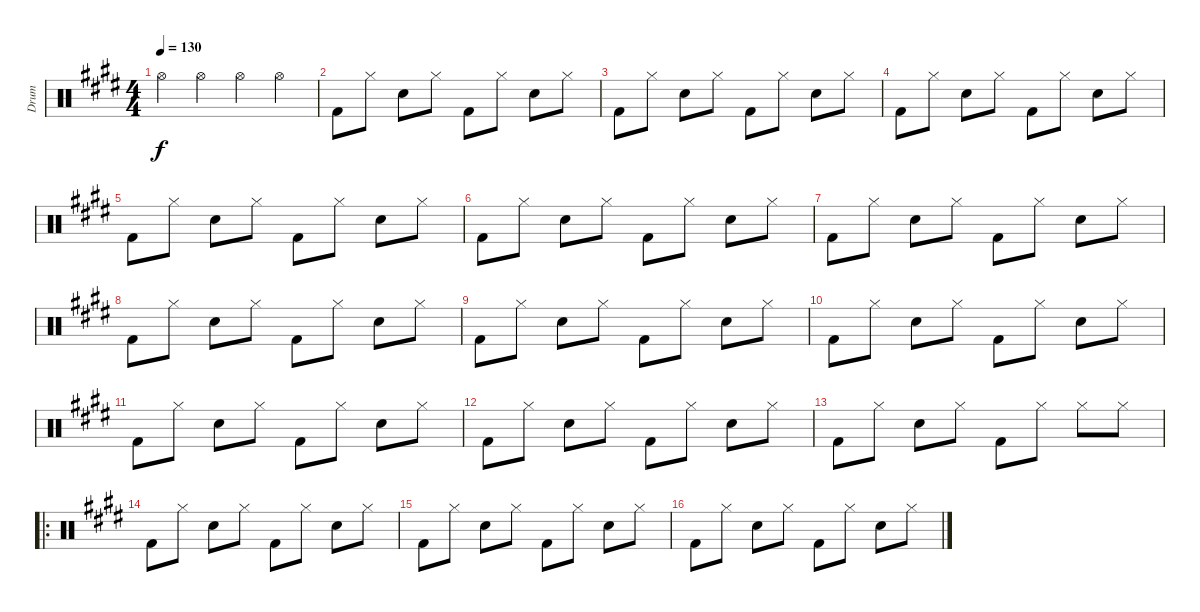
\track ("Drum" "Drum") {instrument percussion}
\staff {score}
\articulation defaults
\ts (4 4)
\tempo 130
\clef neutral
\ks c#minor "Hi-Hat (open)".4{dy f} "Hi-Hat (open)".4 "Hi-Hat (open)".4 "Hi-Hat (open)".4
|
"Kick (hit) 2".8 "Hi-Hat (closed)".8 "Electric Snare (hit)".8 "Hi-Hat (closed)".8 "Kick (hit) 2".8 "Hi-Hat (closed)".8 "Electric Snare (hit)".8 "Hi-Hat (closed)".8 |
"Kick (hit) 2".8 "Hi-Hat (closed)".8 "Electric Snare (hit)".8 "Hi-Hat (closed)".8 "Kick (hit) 2".8 "Hi-Hat (closed)".8 "Electric Snare (hit)".8 "Hi-Hat (closed)".8 |
"Kick (hit) 2".8 "Hi-Hat (closed)".8 "Electric Snare (hit)".8 "Hi-Hat (closed)".8 "Kick (hit) 2".8 "Hi-Hat (closed)".8 "Electric Snare (hit)".8 "Hi-Hat (closed)".8 |
"Kick (hit) 2".8 "Hi-Hat (closed)".8 "Electric Snare (hit)".8 "Hi-Hat (closed)".8 "Kick (hit) 2".8 "Hi-Hat (closed)".8 "Electric Snare (hit)".8 "Hi-Hat (closed)".8 |
"Kick (hit) 2".8 "Hi-Hat (closed)".8 "Electric Snare (hit)".8 "Hi-Hat (closed)".8 "Kick (hit) 2".8 "Hi-Hat (closed)".8 "Electric Snare (hit)".8 "Hi-Hat (closed)".8 |
"Kick (hit) 2".8 "Hi-Hat (closed)".8 "Electric Snare (hit)".8 "Hi-Hat (closed)".8 "Kick (hit) 2".8 "Hi-Hat (closed)".8 "Electric Snare (hit)".8 "Hi-Hat (closed)".8 |
"Kick (hit) 2".8 "Hi-Hat (closed)".8 "Electric Snare (hit)".8 "Hi-Hat (closed)".8 "Kick (hit) 2".8 "Hi-Hat (closed)".8 "Electric Snare (hit)".8 "Hi-Hat (closed)".8 |
"Kick (hit) 2".8 "Hi-Hat (closed)".8 "Electric Snare (hit)".8 "Hi-Hat (closed)".8 "Kick (hit) 2".8 "Hi-Hat (closed)".8 "Electric Snare (hit)".8 "Hi-Hat (closed)".8 |
"Kick (hit) 2".8 "Hi-Hat (closed)".8 "Electric Snare (hit)".8 "Hi-Hat (closed)".8 "Kick (hit) 2".8 "Hi-Hat (closed)".8 "Electric Snare (hit)".8 "Hi-Hat (closed)".8 |
"Kick (hit) 2".8 "Hi-Hat (closed)".8 "Electric Snare (hit)".8 "Hi-Hat (closed)".8 "Kick (hit) 2".8 "Hi-Hat (closed)".8 "Electric Snare (hit)".8 "Hi-Hat (closed)".8 |
"Kick (hit) 2".8 "Hi-Hat (closed)".8 "Electric Snare (hit)".8 "Hi-Hat (closed)".8 "Kick (hit) 2".8 "Hi-Hat (closed)".8 "Electric Snare (hit)".8 "Hi-Hat (closed)".8 |
"Kick (hit) 2".8 "Hi-Hat (closed)".8 "Electric Snare (hit)".8 "Hi-Hat (closed)".8 "Kick (hit) 2".8 "Hi-Hat (closed)".8 "Hi-Hat (closed)".8 "Hi-Hat (closed)".8 |
\ro "Kick (hit) 2".8 "Hi-Hat (closed)".8 "Electric Snare (hit)".8 "Hi-Hat (closed)".8 "Kick (hit) 2".8 "Hi-Hat (closed)".8 "Electric Snare (hit)".8 "Hi-Hat (closed)".8
|
"Kick (hit) 2".8 "Hi-Hat (closed)".8 "Electric Snare (hit)".8 "Hi-Hat (closed)".8 "Kick (hit) 2".8 "Hi-Hat (closed)".8 "Electric Snare (hit)".8 "Hi-Hat (closed)".8 |
"Kick (hit) 2".8 "Hi-Hat (closed)".8 "Electric Snare (hit)".8 "Hi-Hat (closed)".8 "Kick (hit) 2".8 "Hi-Hat (closed)".8 "Electric Snare (hit)".8 "Hi-Hat (closed)".8
